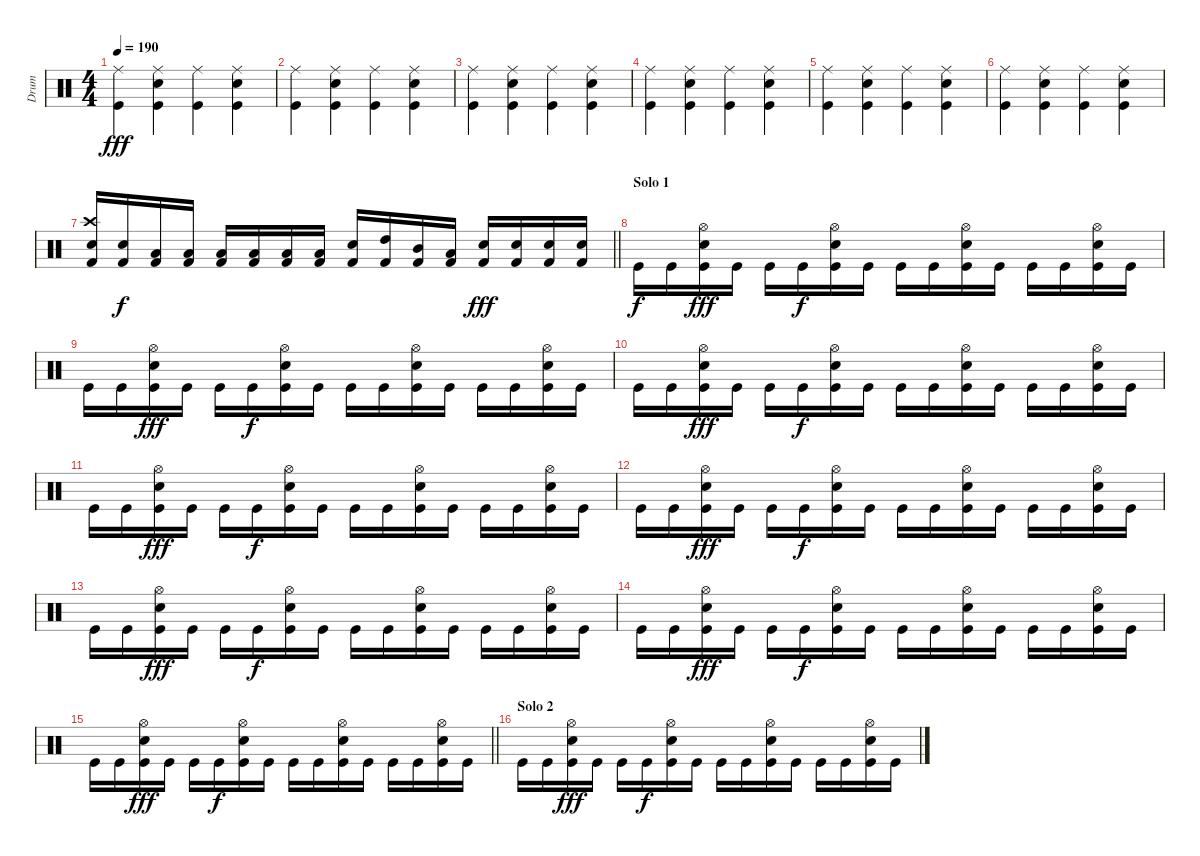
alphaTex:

\track ("Drum" "Drum") {instrument percussion}
\staff {score}
\articulation defaults
\ts (4 4)
\tempo 190
\clef neutral
\ks c
("Ride (middle)" "Kick (hit)").4{dy fff} ("Ride (middle)" "Snare (hit) 2" "Kick (hit)").4 ("Ride (middle)" "Kick (hit)").4 ("Ride (middle)" "Snare (hit) 2" "Kick (hit)").4 |
("Ride (middle)" "Kick (hit)").4 ("Ride (middle)" "Snare (hit) 2" "Kick (hit)").4 ("Ride (middle)" "Kick (hit)").4 ("Ride (middle)" "Snare (hit) 2" "Kick (hit)").4 |
("Ride (middle)" "Kick (hit)").4 ("Ride (middle)" "Snare (hit) 2" "Kick (hit)").4 ("Ride (middle)" "Kick (hit)").4 ("Ride (middle)" "Snare (hit) 2" "Kick (hit)").4 |
("Ride (middle)" "Kick (hit)").4 ("Ride (middle)" "Snare (hit) 2" "Kick (hit)").4 ("Ride (middle)" "Kick (hit)").4 ("Ride (middle)" "Snare (hit) 2" "Kick (hit)").4 |
("Ride (middle)" "Kick (hit)").4 ("Ride (middle)" "Snare (hit) 2" "Kick (hit)").4 ("Ride (middle)" "Kick (hit)").4 ("Ride (middle)" "Snare (hit) 2" "Kick (hit)").4 |
("Ride (middle)" "Kick (hit)").4 ("Ride (middle)" "Snare (hit) 2" "Kick (hit)").4 ("Ride (middle)" "Kick (hit)").4 ("Ride (middle)" "Snare (hit) 2" "Kick (hit)").4 |
\barLineRight lightlight
("Crash high (hit)" "Snare (hit) 2" "Kick (hit) 2").16 ("Electric Snare (hit)" "Kick (hit) 2").16{dy f} ("Low Tom (hit)" "Kick (hit) 2").16 ("Low Tom (hit)" "Kick (hit) 2").16 ("Low Tom (hit)" "Kick (hit) 2").16 ("Low Tom (hit)" "Kick (hit) 2").16 ("Low Tom (hit)" "Kick (hit) 2").16 ("Low Tom (hit)" "Kick (hit) 2").16 ("Snare (hit) 2" "Kick (hit) 2").16 ("High Tom (hit)" "Kick (hit) 2").16 ("Mid Tom (hit)" "Kick (hit) 2").16 ("Low Tom (hit)" "Kick (hit) 2").16 ("Snare (hit) 2" "Kick (hit) 2").16{dy fff} ("Snare (hit) 2" "Kick (hit) 2").16 ("Snare (hit) 2" "Kick (hit) 2").16 ("Snare (hit) 2" "Kick (hit) 2").16 |
\section ("" "Solo 1")
"Kick (hit)".16{dy f} "Kick (hit)".16 ("Hi-Hat (open)" "Snare (hit) 2" "Kick (hit)").16{dy fff} "Kick (hit)".16 "Kick (hit)".16 "Kick (hit)".16{dy f} ("Hi-Hat (open)" "Snare (hit) 2" "Kick (hit)").16 "Kick (hit)".16 "Kick (hit)".16 "Kick (hit)".16 ("Hi-Hat (open)" "Snare (hit) 2" "Kick (hit)").16 "Kick (hit)".16 "Kick (hit)".16 "Kick (hit)".16 ("Hi-Hat (open)" "Snare (hit) 2" "Kick (hit)").16 "Kick (hit)".16 |
"Kick (hit)".16 "Kick (hit)".16 ("Hi-Hat (open)" "Snare (hit) 2" "Kick (hit)").16{dy fff} "Kick (hit)".16 "Kick (hit)".16 "Kick (hit)".16{dy f} ("Hi-Hat (open)" "Snare (hit) 2" "Kick (hit)").16 "Kick (hit)".16 "Kick (hit)".16 "Kick (hit)".16 ("Hi-Hat (open)" "Snare (hit) 2" "Kick (hit)").16 "Kick (hit)".16 "Kick (hit)".16 "Kick (hit)".16 ("Hi-Hat (open)" "Snare (hit) 2" "Kick (hit)").16 "Kick (hit)".16 |
"Kick (hit)".16 "Kick (hit)".16 ("Hi-Hat (open)" "Snare (hit) 2" "Kick (hit)").16{dy fff} "Kick (hit)".16 "Kick (hit)".16 "Kick (hit)".16{dy f} ("Hi-Hat (open)" "Snare (hit) 2" "Kick (hit)").16 "Kick (hit)".16 "Kick (hit)".16 "Kick (hit)".16 ("Hi-Hat (open)" "Snare (hit) 2" "Kick (hit)").16 "Kick (hit)".16 "Kick (hit)".16 "Kick (hit)".16 ("Hi-Hat (open)" "Snare (hit) 2" "Kick (hit)").16 "Kick (hit)".16 |
"Kick (hit)".16 "Kick (hit)".16 ("Hi-Hat (open)" "Snare (hit) 2" "Kick (hit)").16{dy fff} "Kick (hit)".16 "Kick (hit)".16 "Kick (hit)".16{dy f} ("Hi-Hat (open)" "Snare (hit) 2" "Kick (hit)").16 "Kick (hit)".16 "Kick (hit)".16 "Kick (hit)".16 ("Hi-Hat (open)" "Snare (hit) 2" "Kick (hit)").16 "Kick (hit)".16 "Kick (hit)".16 "Kick (hit)".16 ("Hi-Hat (open)" "Snare (hit) 2" "Kick (hit)").16 "Kick (hit)".16 |
"Kick (hit)".16 "Kick (hit)".16 ("Hi-Hat (open)" "Snare (hit) 2" "Kick (hit)").16{dy fff} "Kick (hit)".16 "Kick (hit)".16 "Kick (hit)".16{dy f} ("Hi-Hat (open)" "Snare (hit) 2" "Kick (hit)").16 "Kick (hit)".16 "Kick (hit)".16 "Kick (hit)".16 ("Hi-Hat (open)" "Snare (hit) 2" "Kick (hit)").16 "Kick (hit)".16 "Kick (hit)".16 "Kick (hit)".16 ("Hi-Hat (open)" "Snare (hit) 2" "Kick (hit)").16 "Kick (hit)".16 |
"Kick (hit)".16 "Kick (hit)".16 ("Hi-Hat (open)" "Snare (hit) 2" "Kick (hit)").16{dy fff} "Kick (hit)".16 "Kick (hit)".16 "Kick (hit)".16{dy f} ("Hi-Hat (open)" "Snare (hit) 2" "Kick (hit)").16 "Kick (hit)".16 "Kick (hit)".16 "Kick (hit)".16 ("Hi-Hat (open)" "Snare (hit) 2" "Kick (hit)").16 "Kick (hit)".16 "Kick (hit)".16 "Kick (hit)".16 ("Hi-Hat (open)" "Snare (hit) 2" "Kick (hit)").16 "Kick (hit)".16 |
"Kick (hit)".16 "Kick (hit)".16 ("Hi-Hat (open)" "Snare (hit) 2" "Kick (hit)").16{dy fff} "Kick (hit)".16 "Kick (hit)".16 "Kick (hit)".16{dy f} ("Hi-Hat (open)" "Snare (hit) 2" "Kick (hit)").16 "Kick (hit)".16 "Kick (hit)".16 "Kick (hit)".16 ("Hi-Hat (open)" "Snare (hit) 2" "Kick (hit)").16 "Kick (hit)".16 "Kick (hit)".16 "Kick (hit)".16 ("Hi-Hat (open)" "Snare (hit) 2" "Kick (hit)").16 "Kick (hit)".16 |
\barLineRight lightlight "Kick (hit)".16 "Kick (hit)".16
("Hi-Hat (open)" "Snare (hit) 2" "Kick (hit)").16{dy fff} "Kick (hit)".16 "Kick (hit)".16 "Kick (hit)".16{dy f} ("Hi-Hat (open)" "Snare (hit) 2" "Kick (hit)").16 "Kick (hit)".16 "Kick (hit)".16 "Kick (hit)".16 ("Hi-Hat (open)" "Snare (hit) 2" "Kick (hit)").16 "Kick (hit)".16 "Kick (hit)".16 "Kick (hit)".16 ("Hi-Hat (open)" "Snare (hit) 2" "Kick (hit)").16 "Kick (hit)".16 |
\section ("" "Solo 2")
"Kick (hit)".16 "Kick (hit)".16 ("Hi-Hat (open)" "Snare (hit) 2" "Kick (hit)").16{dy fff} "Kick (hit)".16 "Kick (hit)".16 "Kick (hit)".16{dy f} ("Hi-Hat (open)" "Snare (hit) 2" "Kick (hit)").16 "Kick (hit)".16 "Kick (hit)".16 "Kick (hit)".16 ("Hi-Hat (open)" "Snare (hit) 2" "Kick (hit)").16 "Kick (hit)".16 "Kick (hit)".16 "Kick (hit)".16 ("Hi-Hat (open)" "Snare (hit) 2" "Kick (hit)").16 "Kick (hit)".16
